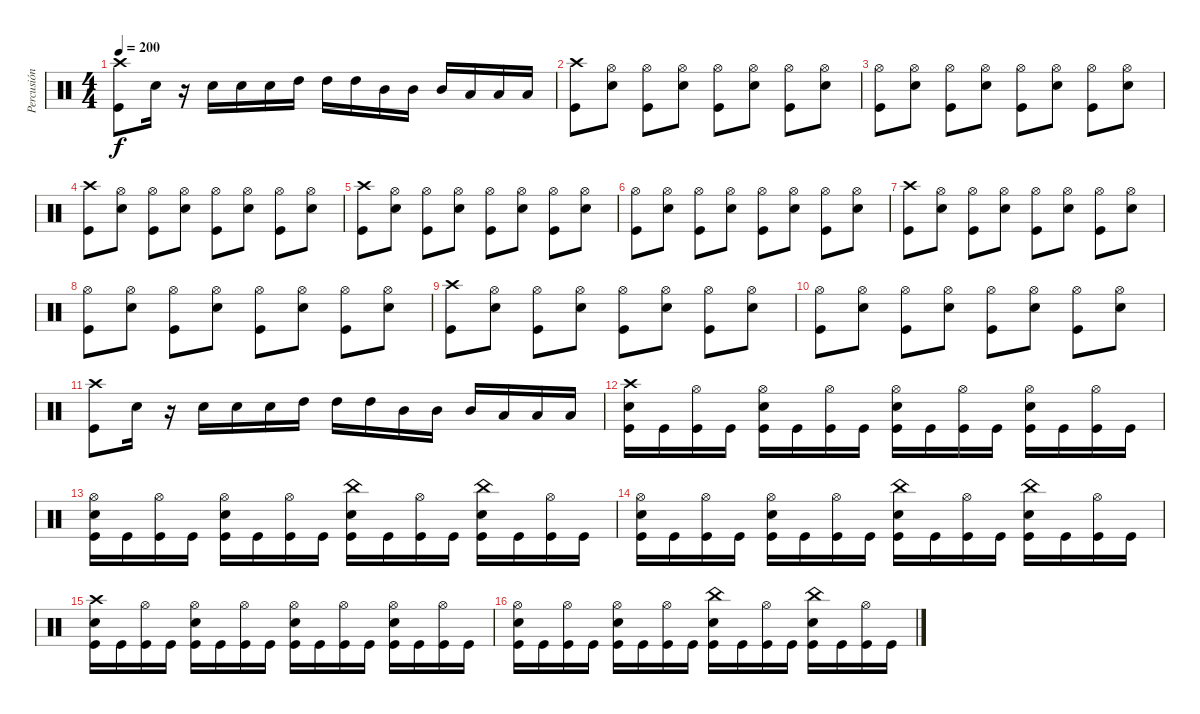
\track ("Percusión" "Percusión") {instrument percussion}
\staff {score}
\articulation defaults
\ts (4 4)
\tempo 200
\clef neutral
\ks c
("Crash high (hit)" "Kick (hit)").8{dy f} "Snare (hit) 2".16 r.16 "Snare (hit) 2".16 "Snare (hit) 2".16 "Snare (hit) 2".16 "High Tom (hit)".16 "High Tom (hit)".16 "High Tom (hit)".16 "Mid Tom (hit)".16 "Mid Tom (hit)".16 "Mid Tom (hit)".16 "Low Tom (hit)".16 "Low Tom (hit)".16 "Low Tom (hit)".16 |
("Crash high (hit)" "Kick (hit)").8 ("Hi-Hat (open)" "Snare (hit) 2").8 ("Hi-Hat (open)" "Kick (hit)").8 ("Hi-Hat (open)" "Snare (hit) 2").8 ("Hi-Hat (open)" "Kick (hit)").8 ("Hi-Hat (open)" "Snare (hit) 2").8 ("Hi-Hat (open)" "Kick (hit)").8 ("Hi-Hat (open)" "Snare (hit) 2").8 |
("Hi-Hat (open)" "Kick (hit)").8 ("Hi-Hat (open)" "Snare (hit) 2").8 ("Hi-Hat (open)" "Kick (hit)").8 ("Hi-Hat (open)" "Snare (hit) 2").8 ("Hi-Hat (open)" "Kick (hit)").8 ("Hi-Hat (open)" "Snare (hit) 2").8 ("Hi-Hat (open)" "Kick (hit)").8 ("Hi-Hat (open)" "Snare (hit) 2").8 |
("Crash high (hit)" "Kick (hit)").8 ("Hi-Hat (open)" "Snare (hit) 2").8 ("Hi-Hat (open)" "Kick (hit)").8 ("Hi-Hat (open)" "Snare (hit) 2").8 ("Hi-Hat (open)" "Kick (hit)").8 ("Hi-Hat (open)" "Snare (hit) 2").8 ("Hi-Hat (open)" "Kick (hit)").8 ("Hi-Hat (open)" "Snare (hit) 2").8 |
("Crash high (hit)" "Kick (hit)").8 ("Hi-Hat (open)" "Snare (hit) 2").8 ("Hi-Hat (open)" "Kick (hit)").8 ("Hi-Hat (open)" "Snare (hit) 2").8 ("Hi-Hat (open)" "Kick (hit)").8 ("Hi-Hat (open)" "Snare (hit) 2").8 ("Hi-Hat (open)" "Kick (hit)").8 ("Hi-Hat (open)" "Snare (hit) 2").8 |
("Hi-Hat (open)" "Kick (hit)").8 ("Hi-Hat (open)" "Snare (hit) 2").8 ("Hi-Hat (open)" "Kick (hit)").8 ("Hi-Hat (open)" "Snare (hit) 2").8 ("Hi-Hat (open)" "Kick (hit)").8 ("Hi-Hat (open)" "Snare (hit) 2").8 ("Hi-Hat (open)" "Kick (hit)").8 ("Hi-Hat (open)" "Snare (hit) 2").8 |
("Crash high (hit)" "Kick (hit)").8 ("Hi-Hat (open)" "Snare (hit) 2").8 ("Hi-Hat (open)" "Kick (hit)").8 ("Hi-Hat (open)" "Snare (hit) 2").8 ("Hi-Hat (open)" "Kick (hit)").8 ("Hi-Hat (open)" "Snare (hit) 2").8 ("Hi-Hat (open)" "Kick (hit)").8 ("Hi-Hat (open)" "Snare (hit) 2").8 |
("Hi-Hat (open)" "Kick (hit)").8 ("Hi-Hat (open)" "Snare (hit) 2").8 ("Hi-Hat (open)" "Kick (hit)").8 ("Hi-Hat (open)" "Snare (hit) 2").8 ("Hi-Hat (open)" "Kick (hit)").8 ("Hi-Hat (open)" "Snare (hit) 2").8 ("Hi-Hat (open)" "Kick (hit)").8 ("Hi-Hat (open)" "Snare (hit) 2").8 |
("Crash high (hit)" "Kick (hit)").8 ("Hi-Hat (open)" "Snare (hit) 2").8 ("Hi-Hat (open)" "Kick (hit)").8 ("Hi-Hat (open)" "Snare (hit) 2").8 ("Hi-Hat (open)" "Kick (hit)").8 ("Hi-Hat (open)" "Snare (hit) 2").8 ("Hi-Hat (open)" "Kick (hit)").8 ("Hi-Hat (open)" "Snare (hit) 2").8 |
("Hi-Hat (open)" "Kick (hit)").8 ("Hi-Hat (open)" "Snare (hit) 2").8 ("Hi-Hat (open)" "Kick (hit)").8 ("Hi-Hat (open)" "Snare (hit) 2").8 ("Hi-Hat (open)" "Kick (hit)").8 ("Hi-Hat (open)" "Snare (hit) 2").8 ("Hi-Hat (open)" "Kick (hit)").8 ("Hi-Hat (open)" "Snare (hit) 2").8 |
("Crash high (hit)" "Kick (hit)").8 "Snare (hit) 2".16 r.16 "Snare (hit) 2".16 "Snare (hit) 2".16 "Snare (hit) 2".16 "High Tom (hit)".16 "High Tom (hit)".16 "High Tom (hit)".16 "Mid Tom (hit)".16 "Mid Tom (hit)".16 "Mid Tom (hit)".16 "Low Tom (hit)".16 "Low Tom (hit)".16 "Low Tom (hit)".16 |
("Crash high (hit)" "Snare (hit) 2" "Kick (hit)").16 "Kick (hit)".16 ("Hi-Hat (open)" "Kick (hit)").16 "Kick (hit)".16 ("Hi-Hat (open)" "Snare (hit) 2" "Kick (hit)").16 "Kick (hit)".16 ("Hi-Hat (open)" "Kick (hit)").16 "Kick (hit)".16 ("Hi-Hat (open)" "Snare (hit) 2" "Kick (hit)").16 "Kick (hit)".16 ("Hi-Hat (open)" "Kick (hit)").16 "Kick (hit)".16 ("Hi-Hat (open)" "Snare (hit) 2" "Kick (hit)").16 "Kick (hit)".16 ("Hi-Hat (open)" "Kick (hit)").16 "Kick (hit)".16 |
("Hi-Hat (open)" "Snare (hit) 2" "Kick (hit)").16 "Kick (hit)".16 ("Hi-Hat (open)" "Kick (hit)").16 "Kick (hit)".16 ("Hi-Hat (open)" "Snare (hit) 2" "Kick (hit)").16 "Kick (hit)".16 ("Hi-Hat (open)" "Kick (hit)").16 "Kick (hit)".16 ("China (hit)" "Snare (hit) 2" "Kick (hit)").16 "Kick (hit)".16 ("Hi-Hat (open)" "Kick (hit)").16 "Kick (hit)".16 ("China (hit)" "Snare (hit) 2" "Kick (hit)").16 "Kick (hit)".16 ("Hi-Hat (open)" "Kick (hit)").16 "Kick (hit)".16 |
("Hi-Hat (open)" "Snare (hit) 2" "Kick (hit)").16 "Kick (hit)".16 ("Hi-Hat (open)" "Kick (hit)").16 "Kick (hit)".16 ("Hi-Hat (open)" "Snare (hit) 2" "Kick (hit)").16 "Kick (hit)".16 ("Hi-Hat (open)" "Kick (hit)").16 "Kick (hit)".16 ("China (hit)" "Snare (hit) 2" "Kick (hit)").16 "Kick (hit)".16 ("Hi-Hat (open)" "Kick (hit)").16 "Kick (hit)".16 ("China (hit)" "Snare (hit) 2" "Kick (hit)").16 "Kick (hit)".16 ("Hi-Hat (open)" "Kick (hit)").16 "Kick (hit)".16 |
("Crash high (hit)" "Snare (hit) 2" "Kick (hit)").16 "Kick (hit)".16 ("Hi-Hat (open)" "Kick (hit)").16 "Kick (hit)".16 ("Hi-Hat (open)" "Snare (hit) 2" "Kick (hit)").16 "Kick (hit)".16 ("Hi-Hat (open)" "Kick (hit)").16 "Kick (hit)".16 ("Hi-Hat (open)" "Snare (hit) 2" "Kick (hit)").16 "Kick (hit)".16 ("Hi-Hat (open)" "Kick (hit)").16 "Kick (hit)".16 ("Hi-Hat (open)" "Snare (hit) 2" "Kick (hit)").16 "Kick (hit)".16 ("Hi-Hat (open)" "Kick (hit)").16 "Kick (hit)".16 |
("Hi-Hat (open)" "Snare (hit) 2" "Kick (hit)").16 "Kick (hit)".16 ("Hi-Hat (open)" "Kick (hit)").16 "Kick (hit)".16 ("Hi-Hat (open)" "Snare (hit) 2" "Kick (hit)").16 "Kick (hit)".16 ("Hi-Hat (open)" "Kick (hit)").16 "Kick (hit)".16 ("China (hit)" "Snare (hit) 2" "Kick (hit)").16 "Kick (hit)".16 ("Hi-Hat (open)" "Kick (hit)").16 "Kick (hit)".16 ("China (hit)" "Snare (hit) 2" "Kick (hit)").16 "Kick (hit)".16 ("Hi-Hat (open)" "Kick (hit)").16 "Kick (hit)".16
